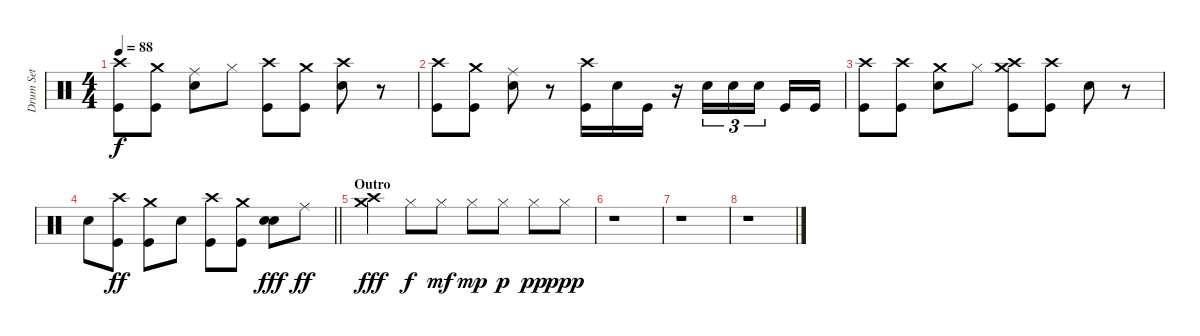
\track ("Drum Set" "Drum Set") {instrument percussion}
\staff {score}
\articulation defaults
\ts (4 4)
\tempo 88
\clef neutral
\ks c
("Crash high (hit)" "Kick (hit)").8{dy f} ("Crash medium (hit)" "Kick (hit)").8 ("Ride (middle)" "Snare (hit) 2").8 "Hi-Hat (closed)".8 ("Crash high (hit)" "Kick (hit)").8 ("Crash medium (hit)" "Kick (hit)").8 ("Crash high (hit)" "Snare (hit) 2").8 r.8 |
("Crash high (hit)" "Kick (hit)").8 ("Crash medium (hit)" "Kick (hit)").8 ("Ride (middle)" "Snare (hit) 2").8 r.8 ("Crash high (hit)" "Kick (hit)").16 "Snare (hit) 2".16 "Kick (hit)".16 r.16 "Snare (hit) 2".16{tu (3 2)} "Snare (hit) 2".16{tu (3 2)} "Snare (hit) 2".16{tu (3 2) beam splitsecondary} "Kick (hit)".16 "Kick (hit)".16 |
("Crash high (hit)" "Kick (hit)").8 ("Crash high (hit)" "Kick (hit)").8 ("Crash medium (hit)" "Snare (hit) 2").8 "Hi-Hat (closed)".8 ("Crash high (hit)" "Crash medium (hit)" "Kick (hit)").8 ("Crash high (hit)" "Kick (hit)").8 "Snare (hit) 2".8 r.8 |
\barLineRight lightlight "Snare (hit) 2".8
("Crash high (hit)" "Kick (hit)").8{dy ff} ("Crash medium (hit)" "Kick (hit)").8 "Snare (hit) 2".8 ("Crash high (hit)" "Kick (hit)").8 ("Crash medium (hit)" "Kick (hit)").8 ("Snare (hit) 2" "Snare (hit) 2").8{dy fff} "Ride (middle)".8{dy ff} |
\section ("" "Outro")
("Crash high (hit)" "Crash medium (hit)").4{dy fff} "Hi-Hat (closed)".8{dy f} "Hi-Hat (closed)".8{dy mf} "Hi-Hat (closed)".8{dy mp} "Hi-Hat (closed)".8{dy p} "Hi-Hat (closed)".8{dy pp} "Hi-Hat (closed)".8{dy ppp} |
r.1 |
r.1 |
r.1
